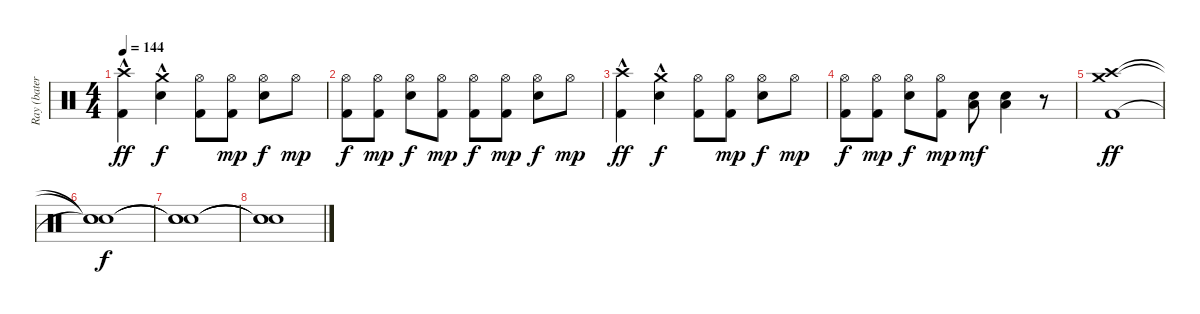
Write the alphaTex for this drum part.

\track ("Ray (batería)" "Ray (bater") {instrument percussion}
\staff {score}
\articulation defaults
\ts (4 4)
\tempo 144
\clef neutral
\ks c
("Crash high (hit)"{hac} "Kick (hit) 2").4{dy ff} ("Crash medium (hit)"{hac} "Snare (hit) 2").4{dy f} ("Hi-Hat (open)" "Kick (hit) 2").8 ("Hi-Hat (open)" "Kick (hit) 2").8{dy mp} ("Hi-Hat (open)" "Snare (hit) 2").8{dy f} "Hi-Hat (open)".8{dy mp} |
("Hi-Hat (open)" "Kick (hit) 2").8{dy f} ("Hi-Hat (open)" "Kick (hit) 2").8{dy mp} ("Hi-Hat (open)" "Snare (hit) 2").8{dy f} ("Hi-Hat (open)" "Kick (hit) 2").8{dy mp} ("Hi-Hat (open)" "Kick (hit) 2").8{dy f} ("Hi-Hat (open)" "Kick (hit) 2").8{dy mp} ("Hi-Hat (open)" "Snare (hit) 2").8{dy f} "Hi-Hat (open)".8{dy mp} |
("Crash high (hit)"{hac} "Kick (hit) 2").4{dy ff} ("Crash medium (hit)"{hac} "Snare (hit) 2").4{dy f} ("Hi-Hat (open)" "Kick (hit) 2").8 ("Hi-Hat (open)" "Kick (hit) 2").8{dy mp} ("Hi-Hat (open)" "Snare (hit) 2").8{dy f} "Hi-Hat (open)".8{dy mp} |
("Hi-Hat (open)" "Kick (hit) 2").8{dy f} ("Hi-Hat (open)" "Kick (hit) 2").8{dy mp} ("Hi-Hat (open)" "Snare (hit) 2").8{dy f} ("Hi-Hat (open)" "Kick (hit) 2").8{dy mp} ("Snare (hit) 2" "Low Floor Tom (hit)").8{dy mf} ("Snare (hit) 2" "Low Floor Tom (hit)").4 r.8 |
("Crash high (hit)" "Crash medium (hit)" "Kick (hit) 2").1{dy ff} |
("Snare (hit)"{t} "Snare (hit)"{t} "Snare (hit)"{t}).1{dy f} |
("Snare (hit)"{t} "Snare (hit)"{t} "Snare (hit)"{t}).1 |
("Snare (hit)"{t} "Snare (hit)"{t} "Snare (hit)"{t}).1
